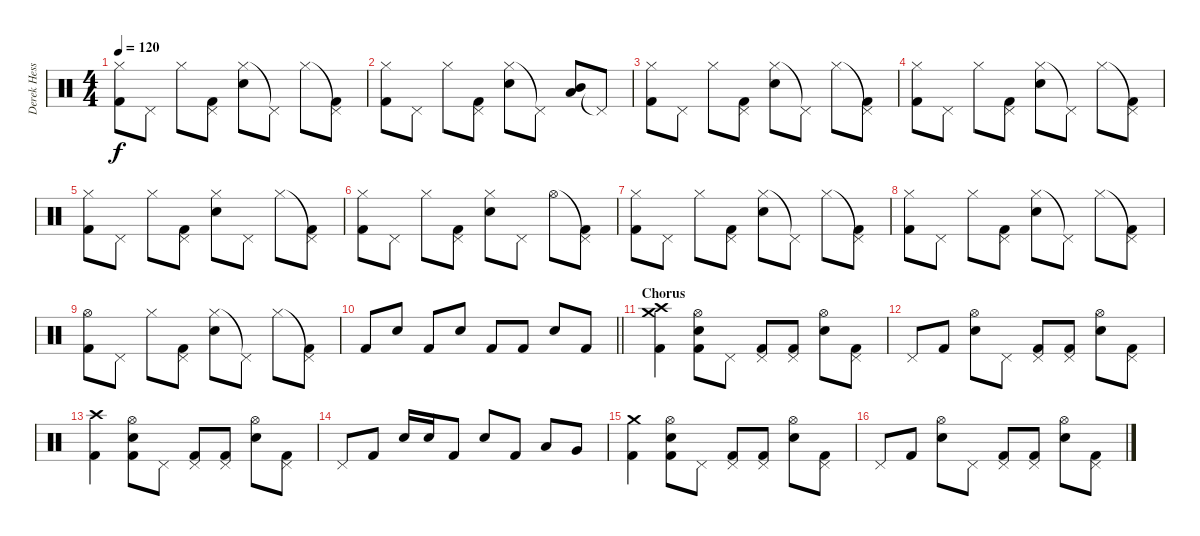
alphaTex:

\track ("Derek Hess (Drums and Percussion)" "Derek Hess") {instrument percussion}
\staff {score}
\articulation defaults
\ts (4 4)
\tempo 120
\clef neutral
\ks c
("Hi-Hat (closed)" "Kick (hit) 2").8{dy f} "Pedal Hi-Hat (hit)".8 "Hi-Hat (closed)".8 ("Pedal Hi-Hat (hit)" "Kick (hit) 2").8 ("Hi-Hat (closed)" "Snare (hit) 2").8 "Pedal Hi-Hat (hit)"{t}.8 "Hi-Hat (closed)".8 ("Pedal Hi-Hat (hit)"{t} "Kick (hit) 2").8 |
("Hi-Hat (closed)" "Kick (hit) 2").8 "Pedal Hi-Hat (hit)".8 "Hi-Hat (closed)".8 ("Pedal Hi-Hat (hit)" "Kick (hit) 2").8 ("Hi-Hat (closed)" "Snare (hit) 2").8 "Pedal Hi-Hat (hit)"{t}.8 ("Mid Tom (hit)" "Low Tom (hit)").8 "Pedal Hi-Hat (hit)"{t}.8 |
("Hi-Hat (closed)" "Kick (hit) 2").8 "Pedal Hi-Hat (hit)".8 "Hi-Hat (closed)".8 ("Pedal Hi-Hat (hit)" "Kick (hit) 2").8 ("Hi-Hat (closed)" "Snare (hit) 2").8 "Pedal Hi-Hat (hit)"{t}.8 "Hi-Hat (closed)".8 ("Pedal Hi-Hat (hit)"{t} "Kick (hit) 2").8 |
("Hi-Hat (closed)" "Kick (hit) 2").8 "Pedal Hi-Hat (hit)".8 "Hi-Hat (closed)".8 ("Pedal Hi-Hat (hit)" "Kick (hit) 2").8 ("Hi-Hat (closed)" "Snare (hit) 2").8 "Pedal Hi-Hat (hit)"{t}.8 "Hi-Hat (closed)".8 ("Pedal Hi-Hat (hit)"{t} "Kick (hit) 2").8 |
("Hi-Hat (closed)" "Kick (hit) 2").8 "Pedal Hi-Hat (hit)".8 "Hi-Hat (closed)".8 ("Pedal Hi-Hat (hit)" "Kick (hit) 2").8 ("Hi-Hat (closed)" "Snare (hit) 2").8 "Pedal Hi-Hat (hit)".8 "Hi-Hat (closed)".8 ("Pedal Hi-Hat (hit)"{t} "Kick (hit) 2").8 |
("Hi-Hat (closed)" "Kick (hit) 2").8 "Pedal Hi-Hat (hit)".8 "Hi-Hat (closed)".8 ("Pedal Hi-Hat (hit)" "Kick (hit) 2").8 ("Hi-Hat (closed)" "Snare (hit) 2").8 "Pedal Hi-Hat (hit)".8 "Hi-Hat (open)".8 ("Pedal Hi-Hat (hit)"{t} "Kick (hit) 2").8 |
("Hi-Hat (closed)" "Kick (hit) 2").8 "Pedal Hi-Hat (hit)".8 "Hi-Hat (closed)".8 ("Pedal Hi-Hat (hit)" "Kick (hit) 2").8 ("Hi-Hat (closed)" "Snare (hit) 2").8 "Pedal Hi-Hat (hit)"{t}.8 "Hi-Hat (closed)".8 ("Pedal Hi-Hat (hit)"{t} "Kick (hit) 2").8 |
("Hi-Hat (closed)" "Kick (hit) 2").8 "Pedal Hi-Hat (hit)".8 "Hi-Hat (closed)".8 ("Pedal Hi-Hat (hit)" "Kick (hit) 2").8 ("Hi-Hat (closed)" "Snare (hit) 2").8 "Pedal Hi-Hat (hit)"{t}.8 "Hi-Hat (closed)".8 ("Pedal Hi-Hat (hit)"{t} "Kick (hit) 2").8 |
("Hi-Hat (open)" "Kick (hit) 2").8 "Pedal Hi-Hat (hit)".8 "Hi-Hat (closed)".8 ("Pedal Hi-Hat (hit)" "Kick (hit) 2").8 ("Hi-Hat (closed)" "Snare (hit) 2").8 "Pedal Hi-Hat (hit)"{t}.8 "Hi-Hat (closed)".8 ("Pedal Hi-Hat (hit)"{t} "Kick (hit) 2").8 |
\barLineRight lightlight "Kick (hit) 2".8 "Snare (hit) 2".8 "Kick (hit) 2".8 "Snare (hit) 2".8 "Kick (hit) 2".8 "Kick (hit) 2".8 "Snare (hit) 2".8 "Kick (hit) 2".8
|
\section ("" "Chorus")
("Crash high (hit)" "Crash medium (hit)" "Kick (hit) 2").4 ("Snare (hit) 2" "Hi-Hat (open)" "Kick (hit) 2").8 "Pedal Hi-Hat (hit)".8 ("Pedal Hi-Hat (hit)" "Kick (hit) 2").8 ("Pedal Hi-Hat (hit)" "Kick (hit) 2").8 ("Snare (hit) 2" "Hi-Hat (open)").8 ("Pedal Hi-Hat (hit)" "Kick (hit) 2").8 |
"Pedal Hi-Hat (hit)".8 "Kick (hit) 2".8 ("Snare (hit) 2" "Hi-Hat (open)").8 "Pedal Hi-Hat (hit)".8 ("Pedal Hi-Hat (hit)" "Kick (hit) 2").8 ("Pedal Hi-Hat (hit)" "Kick (hit) 2").8 ("Snare (hit) 2" "Hi-Hat (open)").8 ("Pedal Hi-Hat (hit)" "Kick (hit) 2").8 |
("Crash high (hit)" "Kick (hit) 2").4 ("Snare (hit) 2" "Hi-Hat (open)" "Kick (hit) 2").8 "Pedal Hi-Hat (hit)".8 ("Pedal Hi-Hat (hit)" "Kick (hit) 2").8 ("Pedal Hi-Hat (hit)" "Kick (hit) 2").8 ("Snare (hit) 2" "Hi-Hat (open)").8 ("Pedal Hi-Hat (hit)" "Kick (hit) 2").8 |
"Pedal Hi-Hat (hit)".8 "Kick (hit) 2".8 "Snare (hit) 2".16 "Snare (hit) 2".16 "Kick (hit) 2".8 "Snare (hit) 2".8 "Kick (hit) 2".8 "Low Tom (hit)".8 "Very Low Tom (hit)".8 |
("Crash medium (hit)" "Kick (hit) 2").4 ("Snare (hit) 2" "Hi-Hat (open)" "Kick (hit) 2").8 "Pedal Hi-Hat (hit)".8 ("Pedal Hi-Hat (hit)" "Kick (hit) 2").8 ("Pedal Hi-Hat (hit)" "Kick (hit) 2").8 ("Snare (hit) 2" "Hi-Hat (open)").8 ("Pedal Hi-Hat (hit)" "Kick (hit) 2").8 |
"Pedal Hi-Hat (hit)".8 "Kick (hit) 2".8 ("Snare (hit) 2" "Hi-Hat (open)").8 "Pedal Hi-Hat (hit)".8 ("Pedal Hi-Hat (hit)" "Kick (hit) 2").8 ("Pedal Hi-Hat (hit)" "Kick (hit) 2").8 ("Snare (hit) 2" "Hi-Hat (open)").8 ("Pedal Hi-Hat (hit)" "Kick (hit) 2").8
